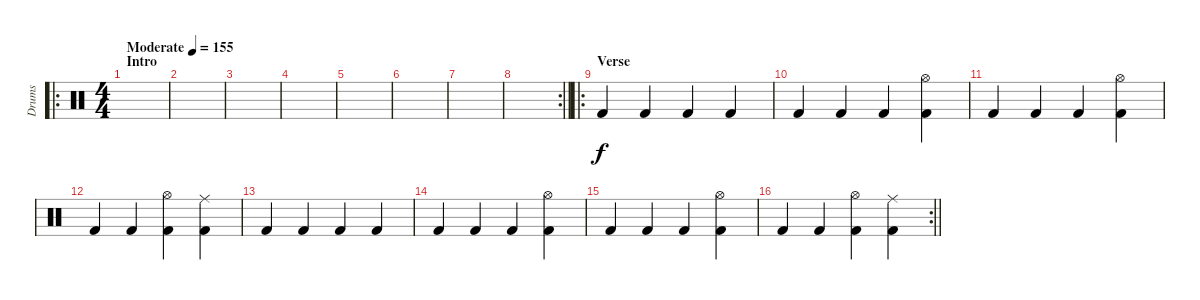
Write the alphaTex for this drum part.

\track ("Drums" "Drums") {instrument percussion}
\staff {score}
\articulation defaults
\ro
\ts (4 4)
\section ("" "Intro")
\tempo (155 "Moderate")
\clef neutral
\ks c
|
|
|
|
|
|
|
\rc 2
\barLineRight lightlight
|
\ro
\section ("" "Verse")
"Kick (hit) 2".4 "Kick (hit) 2".4 "Kick (hit) 2".4 "Kick (hit) 2".4 |
"Kick (hit) 2".4 "Kick (hit) 2".4 "Kick (hit) 2".4 ("Hi-Hat (open)" "Kick (hit) 2").4 |
"Kick (hit) 2".4 "Kick (hit) 2".4 "Kick (hit) 2".4 ("Hi-Hat (open)" "Kick (hit) 2").4 |
"Kick (hit) 2".4 "Kick (hit) 2".4 ("Hi-Hat (open)" "Kick (hit) 2").4 ("Ride (middle)" "Kick (hit) 2").4 |
"Kick (hit) 2".4 "Kick (hit) 2".4 "Kick (hit) 2".4 "Kick (hit) 2".4 |
"Kick (hit) 2".4 "Kick (hit) 2".4 "Kick (hit) 2".4 ("Hi-Hat (open)" "Kick (hit) 2").4 |
"Kick (hit) 2".4 "Kick (hit) 2".4 "Kick (hit) 2".4 ("Hi-Hat (open)" "Kick (hit) 2").4 |
\rc 2
\barLineRight lightlight "Kick (hit) 2".4 "Kick (hit) 2".4
("Hi-Hat (open)" "Kick (hit) 2").4 ("Ride (middle)" "Kick (hit) 2").4
